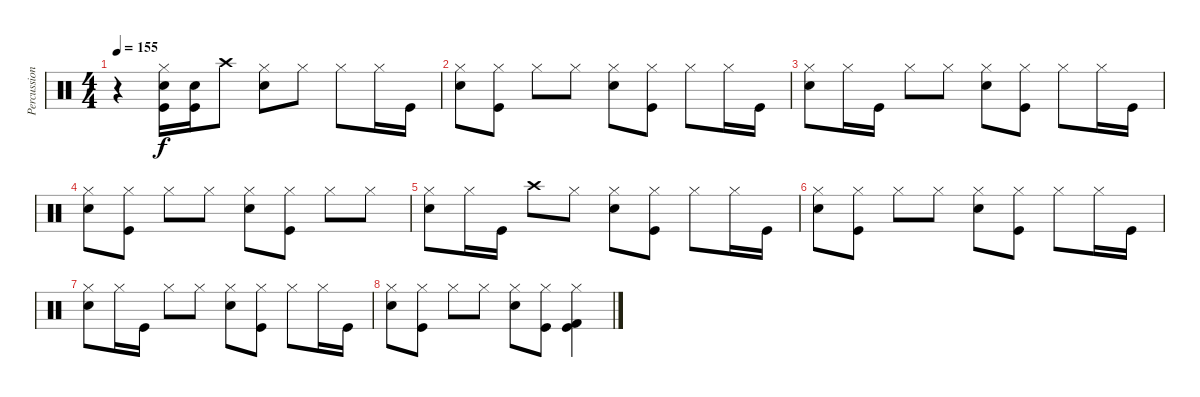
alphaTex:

\track ("Percussion" "Percussion") {instrument percussion}
\staff {score}
\articulation defaults
\ts (4 4)
\tempo 155
\clef neutral
\ks c
r.4{dy f} ("Hi-Hat (closed)" "Snare (hit) 2" "Kick (hit)").16 ("Snare (hit) 2" "Kick (hit)").16 "Crash high (hit)".8 ("Hi-Hat (closed)" "Snare (hit) 2").8 "Hi-Hat (closed)".8 "Hi-Hat (closed)".8 "Hi-Hat (closed)".16 "Kick (hit)".16 |
("Hi-Hat (closed)" "Snare (hit) 2").8 ("Hi-Hat (closed)" "Kick (hit)").8 "Hi-Hat (closed)".8 "Hi-Hat (closed)".8 ("Hi-Hat (closed)" "Snare (hit) 2").8 ("Hi-Hat (closed)" "Kick (hit)").8 "Hi-Hat (closed)".8 "Hi-Hat (closed)".16 "Kick (hit)".16 |
("Hi-Hat (closed)" "Snare (hit) 2").8 "Hi-Hat (closed)".16 "Kick (hit)".16 "Hi-Hat (closed)".8 "Hi-Hat (closed)".8 ("Hi-Hat (closed)" "Snare (hit) 2").8 ("Hi-Hat (closed)" "Kick (hit)").8 "Hi-Hat (closed)".8 "Hi-Hat (closed)".16 "Kick (hit)".16 |
("Hi-Hat (closed)" "Snare (hit) 2").8 ("Hi-Hat (closed)" "Kick (hit)").8 "Hi-Hat (closed)".8 "Hi-Hat (closed)".8 ("Hi-Hat (closed)" "Snare (hit) 2").8 ("Hi-Hat (closed)" "Kick (hit)").8 "Hi-Hat (closed)".8 "Hi-Hat (closed)".8 |
("Hi-Hat (closed)" "Snare (hit) 2").8 "Hi-Hat (closed)".16 "Kick (hit)".16 "Crash high (hit)".8 "Hi-Hat (closed)".8 ("Hi-Hat (closed)" "Snare (hit) 2").8 ("Hi-Hat (closed)" "Kick (hit)").8 "Hi-Hat (closed)".8 "Hi-Hat (closed)".16 "Kick (hit)".16 |
("Hi-Hat (closed)" "Snare (hit) 2").8 ("Hi-Hat (closed)" "Kick (hit)").8 "Hi-Hat (closed)".8 "Hi-Hat (closed)".8 ("Hi-Hat (closed)" "Snare (hit) 2").8 ("Hi-Hat (closed)" "Kick (hit)").8 "Hi-Hat (closed)".8 "Hi-Hat (closed)".16 "Kick (hit)".16 |
("Hi-Hat (closed)" "Snare (hit) 2").8 "Hi-Hat (closed)".16 "Kick (hit)".16 "Hi-Hat (closed)".8 "Hi-Hat (closed)".8 ("Hi-Hat (closed)" "Snare (hit) 2").8 ("Hi-Hat (closed)" "Kick (hit)").8 "Hi-Hat (closed)".8 "Hi-Hat (closed)".16 "Kick (hit)".16 |
("Hi-Hat (closed)" "Snare (hit) 2").8 ("Hi-Hat (closed)" "Kick (hit)").8 "Hi-Hat (closed)".8 "Hi-Hat (closed)".8 ("Hi-Hat (closed)" "Snare (hit) 2").8 ("Hi-Hat (closed)" "Kick (hit)").8 ("Hi-Hat (closed)" "Kick (hit) 2" "Kick (hit)").4
